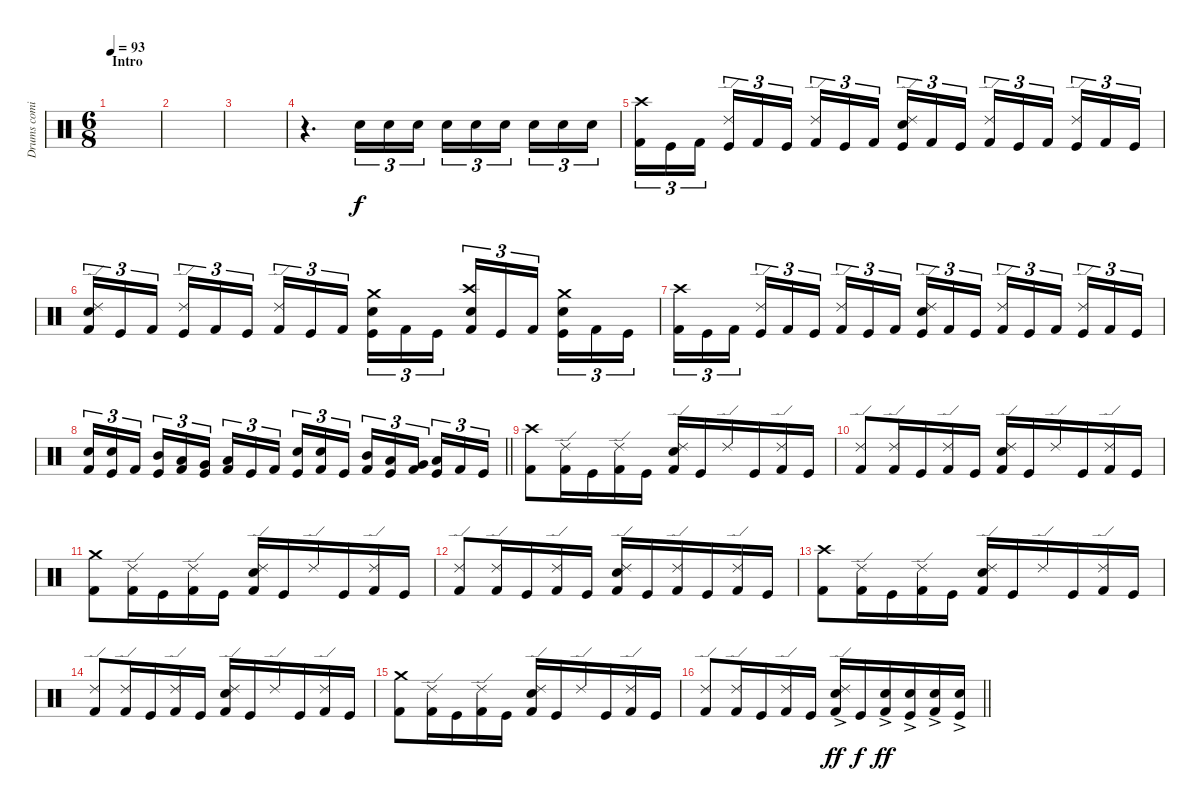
\track ("Drums coming soon" "Drums comi") {instrument percussion}
\staff {score}
\articulation defaults
\ts (6 8)
\section ("" "Intro")
\tempo 93
\clef neutral
\ks c
|
|
|
r.4{d} "Snare (hit) 2".16{tu (3 2)} "Snare (hit) 2".16{tu (3 2)} "Snare (hit) 2".16{tu (3 2) beam splitsecondary} "Snare (hit) 2".16{tu (3 2)} "Snare (hit) 2".16{tu (3 2)} "Snare (hit) 2".16{tu (3 2) beam splitsecondary} "Snare (hit) 2".16{tu (3 2)} "Snare (hit) 2".16{tu (3 2)} "Snare (hit) 2".16{tu (3 2)} |
("Crash high (hit)" "Kick (hit) 2").16{tu (3 2)} "Kick (hit)".16{tu (3 2)} "Kick (hit) 2".16{tu (3 2) beam splitsecondary} ("Ride (edge) 2" "Kick (hit)").16{tu (3 2)} "Kick (hit) 2".16{tu (3 2)} "Kick (hit)".16{tu (3 2) beam splitsecondary} ("Ride (edge) 2" "Kick (hit) 2").16{tu (3 2)} "Kick (hit)".16{tu (3 2)} "Kick (hit) 2".16{tu (3 2)} ("Ride (edge) 2" "Snare (hit) 2" "Kick (hit)").16{tu (3 2)} "Kick (hit) 2".16{tu (3 2)} "Kick (hit)".16{tu (3 2) beam splitsecondary} ("Ride (edge) 2" "Kick (hit) 2").16{tu (3 2)} "Kick (hit)".16{tu (3 2)} "Kick (hit) 2".16{tu (3 2) beam splitsecondary} ("Ride (edge) 2" "Kick (hit)").16{tu (3 2)} "Kick (hit) 2".16{tu (3 2)} "Kick (hit)".16{tu (3 2)} |
("Ride (edge) 2" "Snare (hit) 2" "Kick (hit) 2").16{tu (3 2)} "Kick (hit)".16{tu (3 2)} "Kick (hit) 2".16{tu (3 2) beam splitsecondary} ("Ride (edge) 2" "Kick (hit)").16{tu (3 2)} "Kick (hit) 2".16{tu (3 2)} "Kick (hit)".16{tu (3 2) beam splitsecondary} ("Ride (edge) 2" "Kick (hit) 2").16{tu (3 2)} "Kick (hit)".16{tu (3 2)} "Kick (hit) 2".16{tu (3 2)} ("Crash medium (hit)" "Snare (hit) 2" "Kick (hit)").16{tu (3 2)} "Kick (hit) 2".16{tu (3 2)} "Kick (hit)".16{tu (3 2) beam splitsecondary} ("Crash high (hit)" "Snare (hit) 2" "Kick (hit) 2").16{tu (3 2)} "Kick (hit)".16{tu (3 2)} "Kick (hit) 2".16{tu (3 2) beam splitsecondary} ("Crash medium (hit)" "Snare (hit) 2" "Kick (hit)").16{tu (3 2)} "Kick (hit) 2".16{tu (3 2)} "Kick (hit)".16{tu (3 2)} |
("Crash high (hit)" "Kick (hit) 2").16{tu (3 2)} "Kick (hit)".16{tu (3 2)} "Kick (hit) 2".16{tu (3 2) beam splitsecondary} ("Ride (edge) 2" "Kick (hit)").16{tu (3 2)} "Kick (hit) 2".16{tu (3 2)} "Kick (hit)".16{tu (3 2) beam splitsecondary} ("Ride (edge) 2" "Kick (hit) 2").16{tu (3 2)} "Kick (hit)".16{tu (3 2)} "Kick (hit) 2".16{tu (3 2)} ("Ride (edge) 2" "Snare (hit) 2" "Kick (hit)").16{tu (3 2)} "Kick (hit) 2".16{tu (3 2)} "Kick (hit)".16{tu (3 2) beam splitsecondary} ("Ride (edge) 2" "Kick (hit) 2").16{tu (3 2)} "Kick (hit)".16{tu (3 2)} "Kick (hit) 2".16{tu (3 2) beam splitsecondary} ("Ride (edge) 2" "Kick (hit)").16{tu (3 2)} "Kick (hit) 2".16{tu (3 2)} "Kick (hit)".16{tu (3 2)} |
\barLineRight lightlight
("Snare (hit) 2" "Kick (hit) 2").16{tu (3 2)} ("Snare (hit) 2" "Kick (hit)").16{tu (3 2)} "Kick (hit) 2".16{tu (3 2) beam splitsecondary} ("Mid Tom (hit)" "Kick (hit)").16{tu (3 2)} ("Low Tom (hit)" "Kick (hit) 2").16{tu (3 2)} ("Very Low Tom (hit)" "Kick (hit)").16{tu (3 2) beam splitsecondary} ("Low Floor Tom (hit)" "Kick (hit) 2").16{tu (3 2)} "Kick (hit)".16{tu (3 2)} "Kick (hit) 2".16{tu (3 2)} ("Snare (hit) 2" "Kick (hit)").16{tu (3 2)} ("Snare (hit) 2" "Kick (hit) 2").16{tu (3 2)} "Kick (hit)".16{tu (3 2) beam splitsecondary} ("Mid Tom (hit)" "Kick (hit) 2").16{tu (3 2)} ("Low Tom (hit)" "Kick (hit)").16{tu (3 2)} ("Very Low Tom (hit)" "Kick (hit) 2").16{tu (3 2) beam splitsecondary} ("Low Floor Tom (hit)" "Kick (hit)").16{tu (3 2)} "Kick (hit) 2".16{tu (3 2)} "Kick (hit)".16{tu (3 2)} |
\section ("" "")
("Crash high (hit)" "Kick (hit) 2").8 ("Ride (edge) 2" "Kick (hit) 2").16 "Kick (hit)".16 ("Ride (edge) 2" "Kick (hit) 2").16 "Kick (hit)".16 ("Ride (edge) 2" "Snare (hit) 2" "Kick (hit) 2").16 "Kick (hit)".16 "Ride (edge) 2".16 "Kick (hit)".16 ("Ride (edge) 2" "Kick (hit) 2").16 "Kick (hit)".16 |
("Ride (edge) 2" "Kick (hit) 2").8 ("Ride (edge) 2" "Kick (hit) 2").16 "Kick (hit)".16 ("Ride (edge) 2" "Kick (hit) 2").16 "Kick (hit)".16 ("Ride (edge) 2" "Snare (hit) 2" "Kick (hit) 2").16 "Kick (hit)".16 "Ride (edge) 2".16 "Kick (hit)".16 ("Ride (edge) 2" "Kick (hit) 2").16 "Kick (hit)".16 |
("Crash medium (hit)" "Kick (hit) 2").8 ("Ride (edge) 2" "Kick (hit) 2").16 "Kick (hit)".16 ("Ride (edge) 2" "Kick (hit) 2").16 "Kick (hit)".16 ("Ride (edge) 2" "Snare (hit) 2" "Kick (hit) 2").16 "Kick (hit)".16 "Ride (edge) 2".16 "Kick (hit)".16 ("Ride (edge) 2" "Kick (hit) 2").16 "Kick (hit)".16 |
("Ride (edge) 2" "Kick (hit) 2").8 ("Ride (edge) 2" "Kick (hit) 2").16 "Kick (hit)".16 ("Ride (edge) 2" "Kick (hit) 2").16 "Kick (hit)".16 ("Ride (edge) 2" "Snare (hit) 2" "Kick (hit) 2").16 "Kick (hit)".16 ("Ride (edge) 2" "Kick (hit) 2").16 "Kick (hit)".16 ("Ride (edge) 2" "Kick (hit) 2").16 "Kick (hit)".16 |
("Crash high (hit)" "Kick (hit) 2").8 ("Ride (edge) 2" "Kick (hit) 2").16 "Kick (hit)".16 ("Ride (edge) 2" "Kick (hit) 2").16 "Kick (hit)".16 ("Ride (edge) 2" "Snare (hit) 2" "Kick (hit) 2").16 "Kick (hit)".16 "Ride (edge) 2".16 "Kick (hit)".16 ("Ride (edge) 2" "Kick (hit) 2").16 "Kick (hit)".16 |
("Ride (edge) 2" "Kick (hit) 2").8 ("Ride (edge) 2" "Kick (hit) 2").16 "Kick (hit)".16 ("Ride (edge) 2" "Kick (hit) 2").16 "Kick (hit)".16 ("Ride (edge) 2" "Snare (hit) 2" "Kick (hit) 2").16 "Kick (hit)".16 "Ride (edge) 2".16 "Kick (hit)".16 ("Ride (edge) 2" "Kick (hit) 2").16 "Kick (hit)".16 |
("Crash medium (hit)" "Kick (hit) 2").8 ("Ride (edge) 2" "Kick (hit) 2").16 "Kick (hit)".16 ("Ride (edge) 2" "Kick (hit) 2").16 "Kick (hit)".16 ("Ride (edge) 2" "Snare (hit) 2" "Kick (hit) 2").16 "Kick (hit)".16 "Ride (edge) 2".16 "Kick (hit)".16 ("Ride (edge) 2" "Kick (hit) 2").16 "Kick (hit)".16 |
\barLineRight lightlight
("Ride (edge) 2" "Kick (hit) 2").8 ("Ride (edge) 2" "Kick (hit) 2").16 "Kick (hit)".16 ("Ride (edge) 2" "Kick (hit) 2").16 "Kick (hit)".16 ("Ride (edge) 2" "Snare (hit) 2"{ac} "Kick (hit) 2").16{dy ff} "Kick (hit)".16{dy f} ("Snare (hit) 2"{ac} "Kick (hit) 2").16{dy ff} ("Snare (hit) 2"{ac} "Kick (hit)").16 ("Snare (hit) 2"{ac} "Kick (hit) 2").16 ("Snare (hit) 2"{ac} "Kick (hit)").16
